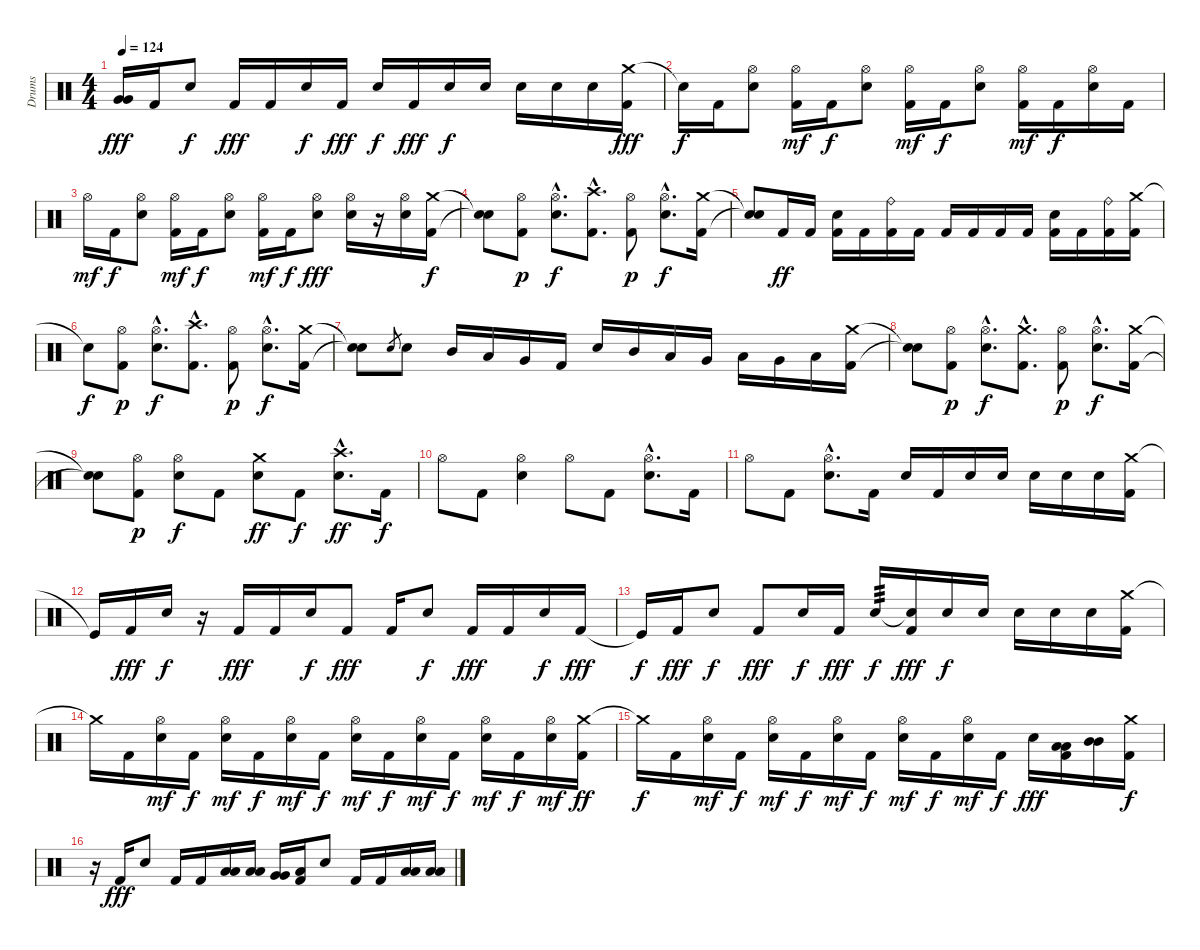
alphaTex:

\track ("Drums" "Drums") {instrument percussion}
\staff {score}
\articulation defaults
\ts (4 4)
\tempo 124
\clef neutral
\ks c
("Very Low Tom (hit)" "Very Low Tom (hit)").16{dy fff} "Kick (hit) 2".16 "Snare (hit) 2".8{dy f} "Kick (hit) 2".16{dy fff} "Kick (hit) 2".16 "Snare (hit) 2".16{dy f} "Kick (hit) 2".16{dy fff} "Snare (hit) 2".16{dy f} "Kick (hit) 2".16{dy fff} "Snare (hit) 2".16{dy f} "Snare (hit) 2".16 "Snare (hit) 2".16 "Snare (hit) 2".16 "Snare (hit) 2".16 ("Crash medium (hit)" "Kick (hit) 2").16{dy fff} |
"Snare (hit)"{t}.16{dy f} "Kick (hit) 2".16 ("Hi-Hat (open)" "Snare (hit) 2").8 ("Hi-Hat (open)" "Kick (hit) 2").16{dy mf} "Kick (hit) 2".16{dy f} ("Hi-Hat (open)" "Snare (hit) 2").8 ("Hi-Hat (open)" "Kick (hit) 2").16{dy mf} "Kick (hit) 2".16{dy f} ("Hi-Hat (open)" "Snare (hit) 2").8 ("Hi-Hat (open)" "Kick (hit) 2").16{dy mf} "Kick (hit) 2".16{dy f} ("Hi-Hat (open)" "Snare (hit) 2").16 "Kick (hit) 2".16 |
"Hi-Hat (open)".16{dy mf} "Kick (hit) 2".16{dy f} ("Hi-Hat (open)" "Snare (hit) 2").8 ("Hi-Hat (open)" "Kick (hit) 2").16{dy mf} "Kick (hit) 2".16{dy f} ("Hi-Hat (open)" "Snare (hit) 2").8 ("Hi-Hat (open)" "Kick (hit) 2").16{dy mf} "Kick (hit) 2".16{dy f} ("Hi-Hat (open)" "Snare (hit) 2").8{dy fff} ("Hi-Hat (open)" "Snare (hit) 2").16 r.16 ("Hi-Hat (open)" "Snare (hit) 2").16 ("Crash medium (hit)" "Kick (hit) 2").16{dy f} |
("Snare (hit)"{t} "Snare (hit)"{t}).8 ("Hi-Hat (open)" "Kick (hit) 2").8{dy p} ("Hi-Hat (open)"{hac} "Snare (hit) 2"{hac}).8{d dy f} ("Crash high (hit)"{hac} "Kick (hit) 2"{hac}).8{d} ("Hi-Hat (open)" "Kick (hit) 2").8{dy p} ("Hi-Hat (open)"{hac} "Snare (hit) 2"{hac}).8{d dy f} ("Crash medium (hit)" "Kick (hit) 2").16 |
("Snare (hit)"{t} "Snare (hit)"{t}).8 "Kick (hit) 2".16{dy ff} "Kick (hit) 2".16 ("Snare (hit) 2" "Kick (hit) 2").16 "Kick (hit) 2".16 ("Ride (bell)" "Kick (hit) 2").16 "Kick (hit) 2".16 "Kick (hit) 2".16 "Kick (hit) 2".16 "Kick (hit) 2".16 "Kick (hit) 2".16 ("Snare (hit) 2" "Kick (hit) 2").16 "Kick (hit) 2".16 ("Ride (bell)" "Kick (hit) 2").16 ("Crash medium (hit)" "Kick (hit) 2").16 |
"Snare (hit)"{t}.8{dy f} ("Hi-Hat (open)" "Kick (hit) 2").8{dy p} ("Hi-Hat (open)"{hac} "Snare (hit) 2"{hac}).8{d dy f} ("Crash high (hit)"{hac} "Kick (hit) 2"{hac}).8{d} ("Hi-Hat (open)" "Kick (hit) 2").8{dy p} ("Hi-Hat (open)"{hac} "Snare (hit) 2"{hac}).8{d dy f} ("Crash medium (hit)" "Kick (hit) 2").16 |
("Snare (hit)"{t} "Snare (hit)"{t}).8 "Snare (hit) 2".8{gr} "Snare (hit) 2".8 "Mid Tom (hit)".16 "Low Tom (hit)".16 "Very Low Tom (hit)".16 "Kick (hit) 2".16 "Snare (hit) 2".16 "Mid Tom (hit)".16 "Low Tom (hit)".16 "Very Low Tom (hit)".16 "Low Floor Tom (hit)".16 "Very Low Tom (hit)".16 "Low Floor Tom (hit)".16 ("Crash medium (hit)" "Kick (hit) 2").16 |
("Snare (hit)"{t} "Snare (hit)"{t}).8 ("Hi-Hat (open)" "Kick (hit) 2").8{dy p} ("Hi-Hat (open)"{hac} "Snare (hit) 2"{hac}).8{d dy f} ("Crash medium (hit)"{hac} "Kick (hit) 2"{hac}).8{d} ("Hi-Hat (open)" "Kick (hit) 2").8{dy p} ("Hi-Hat (open)"{hac} "Snare (hit) 2"{hac}).8{d dy f} ("Crash medium (hit)" "Kick (hit) 2").16 |
("Snare (hit)"{t} "Snare (hit)"{t}).8 ("Hi-Hat (open)" "Kick (hit) 2").8{dy p} ("Hi-Hat (open)" "Snare (hit) 2").8{dy f} "Kick (hit) 2".8 ("Crash medium (hit)" "Snare (hit) 2").8{dy ff} "Kick (hit) 2".8{dy f} ("Crash high (hit)"{hac} "Snare (hit) 2"{hac}).8{d dy ff} "Kick (hit) 2".16{dy f} |
"Hi-Hat (open)".8 "Kick (hit) 2".8 ("Hi-Hat (open)" "Snare (hit) 2").4 "Hi-Hat (open)".8 "Kick (hit) 2".8 ("Hi-Hat (open)"{hac} "Snare (hit) 2"{hac}).8{d} "Kick (hit) 2".16 |
"Hi-Hat (open)".8 "Kick (hit) 2".8 ("Hi-Hat (open)"{hac} "Snare (hit) 2"{hac}).8{d} "Kick (hit) 2".16 "Snare (hit) 2".16 "Kick (hit) 2".16 "Snare (hit) 2".16 "Snare (hit) 2".16 "Snare (hit) 2".16 "Snare (hit) 2".16 "Snare (hit) 2".16 ("Crash medium (hit)" "Kick (hit) 2").16 |
"Kick (hit)"{t}.16 "Kick (hit) 2".16{dy fff} "Snare (hit) 2".16{dy f} r.16 "Kick (hit) 2".16{dy fff} "Kick (hit) 2".16 "Snare (hit) 2".16{dy f} "Kick (hit) 2".8{dy fff} "Kick (hit) 2".16 "Snare (hit) 2".8{dy f} "Kick (hit) 2".16{dy fff} "Kick (hit) 2".16 "Snare (hit) 2".16{dy f} "Kick (hit) 2".16{dy fff} |
"Kick (hit)"{t}.16{dy f} "Kick (hit) 2".16{dy fff} "Snare (hit) 2".8{dy f} "Kick (hit) 2".8{dy fff} "Snare (hit) 2".16{dy f} "Kick (hit) 2".16{dy fff} "Snare (hit) 2".16{tp 3 dy f} ("Snare (hit)"{t} "Kick (hit) 2").16{dy fff} "Snare (hit) 2".16{dy f} "Snare (hit) 2".16 "Snare (hit) 2".16 "Snare (hit) 2".16 "Snare (hit) 2".16 ("Crash medium (hit)" "Kick (hit) 2").16 |
\section ("" "")
"Crash medium (hit)"{t}.16 "Kick (hit) 2".16 ("Hi-Hat (open)" "Snare (hit) 2").16{dy mf} "Kick (hit) 2".16{dy f} ("Hi-Hat (open)" "Snare (hit) 2").16{dy mf} "Kick (hit) 2".16{dy f} ("Hi-Hat (open)" "Snare (hit) 2").16{dy mf} "Kick (hit) 2".16{dy f} ("Hi-Hat (open)" "Snare (hit) 2").16{dy mf} "Kick (hit) 2".16{dy f} ("Hi-Hat (open)" "Snare (hit) 2").16{dy mf} "Kick (hit) 2".16{dy f} ("Hi-Hat (open)" "Snare (hit) 2").16{dy mf} "Kick (hit) 2".16{dy f} ("Hi-Hat (open)" "Snare (hit) 2").16{dy mf} ("Crash medium (hit)" "Kick (hit) 2").16{dy ff} |
"Crash medium (hit)"{t}.16{dy f} "Kick (hit) 2".16 ("Hi-Hat (open)" "Snare (hit) 2").16{dy mf} "Kick (hit) 2".16{dy f} ("Hi-Hat (open)" "Snare (hit) 2").16{dy mf} "Kick (hit) 2".16{dy f} ("Hi-Hat (open)" "Snare (hit) 2").16{dy mf} "Kick (hit) 2".16{dy f} ("Hi-Hat (open)" "Snare (hit) 2").16{dy mf} "Kick (hit) 2".16{dy f} ("Hi-Hat (open)" "Snare (hit) 2").16{dy mf} "Kick (hit) 2".16{dy f} "Snare (hit) 2".16{dy fff} ("Low Tom (hit)" "Low Tom (hit)" "Kick (hit) 2").16 ("Mid Tom (hit)" "Mid Tom (hit)").16 ("Crash medium (hit)" "Kick (hit) 2").16{dy f} |
r.16 "Kick (hit) 2".16{dy fff} "Snare (hit) 2".8 "Kick (hit) 2".16 "Kick (hit) 2".16 ("Low Tom (hit)" "Low Tom (hit)").16 ("Low Tom (hit)" "Low Tom (hit)").16 ("Very Low Tom (hit)" "Very Low Tom (hit)").16 ("Low Floor Tom (hit)" "Kick (hit) 2").16 "Snare (hit) 2".8 "Kick (hit) 2".16 "Kick (hit) 2".16 ("Low Tom (hit)" "Low Tom (hit)").16 ("Low Tom (hit)" "Low Tom (hit)").16
